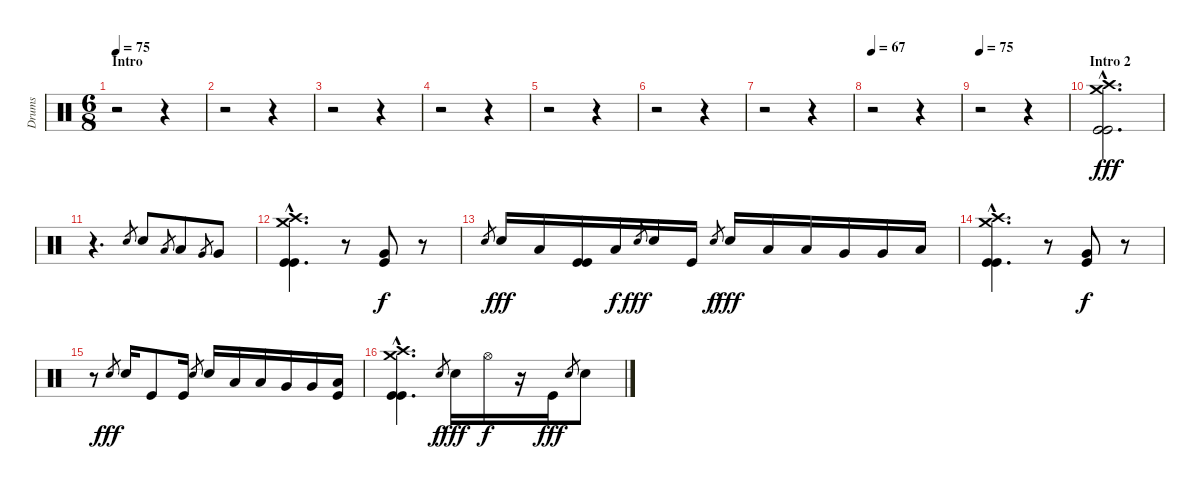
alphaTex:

\track ("Drums" "Drums") {instrument percussion}
\staff {score}
\articulation defaults
\ts (6 8)
\section ("" "Intro")
\tempo 75
\clef neutral
\ks c
r.2{dy fff} r.4 |
r.2 r.4 |
r.2 r.4 |
r.2 r.4 |
r.2 r.4 |
r.2 r.4 |
r.2 r.4 |
\tempo 67
r.2 r.4 |
\tempo 75
r.2 r.4 |
\section ("" "Intro 2")
("Crash medium (hit)"{hac} "Crash high (hit)"{hac} "Kick (hit)"{hac} "Kick (hit)"{hac}).2{d} |
r.4{d} "Snare (hit) 2".8{gr} "Snare (hit) 2".8 "Low Tom (hit)".8{gr} "Low Tom (hit)".8 "Very Low Tom (hit)".8{gr} "Very Low Tom (hit)".8 |
("Crash medium (hit)"{hac} "Crash high (hit)"{hac} "Kick (hit)"{hac} "Kick (hit)"{hac}).4{d} r.8 ("Very Low Tom (hit)" "Kick (hit)").8{dy f} r.8 |
"Snare (hit) 2".8{gr} "Snare (hit) 2".16{dy fff} "Low Tom (hit)".16 ("Kick (hit)" "Kick (hit)").16 "Low Tom (hit)".16{dy f} "Snare (hit) 2".8{gr dy fff} "Snare (hit) 2".16 "Kick (hit)".16 "Snare (hit) 2".8{gr dy f} "Snare (hit) 2".16{dy fff} "Low Tom (hit)".16 "Low Tom (hit)".16 "Very Low Tom (hit)".16 "Very Low Tom (hit)".16 "Low Floor Tom (hit)".16 |
("Crash medium (hit)"{hac} "Crash high (hit)"{hac} "Kick (hit)"{hac} "Kick (hit)"{hac}).4{d} r.8 ("Very Low Tom (hit)" "Kick (hit)").8{dy f} r.8 |
r.8 "Snare (hit) 2".8{gr dy fff} "Snare (hit) 2".16 "Kick (hit)".8 "Kick (hit)".16 "Snare (hit) 2".8{gr} "Snare (hit) 2".16 "Low Tom (hit)".16 "Low Tom (hit)".16 "Very Low Tom (hit)".16 "Very Low Tom (hit)".16 ("Low Floor Tom (hit)" "Kick (hit)").16 |
("Crash medium (hit)"{hac} "Crash high (hit)"{hac} "Kick (hit)"{hac} "Kick (hit)"{hac}).4{d} "Snare (hit) 2".8{gr dy f} "Snare (hit) 2".16{dy fff} "Hi-Hat (open)".16{dy f} r.16 "Kick (hit)".16{dy fff} "Snare (hit) 2".8{gr} "Snare (hit) 2".8
